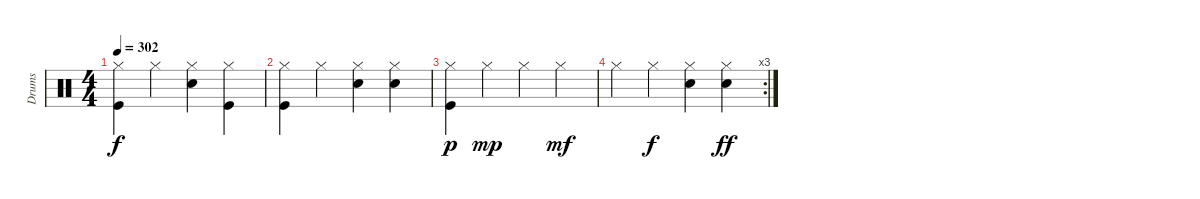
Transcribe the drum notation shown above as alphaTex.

\track ("Drums" "Drums") {instrument percussion}
\staff {score}
\articulation defaults
\ts (4 4)
\tempo 302
\clef neutral
\ks c
("Hi-Hat (closed)" "Kick (hit)").4{dy f} "Hi-Hat (closed)".4 ("Hi-Hat (closed)" "Snare (hit) 2").4 ("Kick (hit)" "Hi-Hat (closed)").4 |
("Hi-Hat (closed)" "Kick (hit)").4 "Hi-Hat (closed)".4 ("Hi-Hat (closed)" "Snare (hit) 2").4 ("Hi-Hat (closed)" "Snare (hit) 2").4 |
("Hi-Hat (closed)" "Kick (hit)").4{dy p} "Hi-Hat (closed)".4{dy mp} "Hi-Hat (closed)".4 "Hi-Hat (closed)".4{dy mf} |
\rc 3 "Hi-Hat (closed)".4 "Hi-Hat (closed)".4{dy f}
("Electric Snare (hit)" "Hi-Hat (closed)").4 ("Electric Snare (hit)" "Hi-Hat (closed)").4{dy ff}
